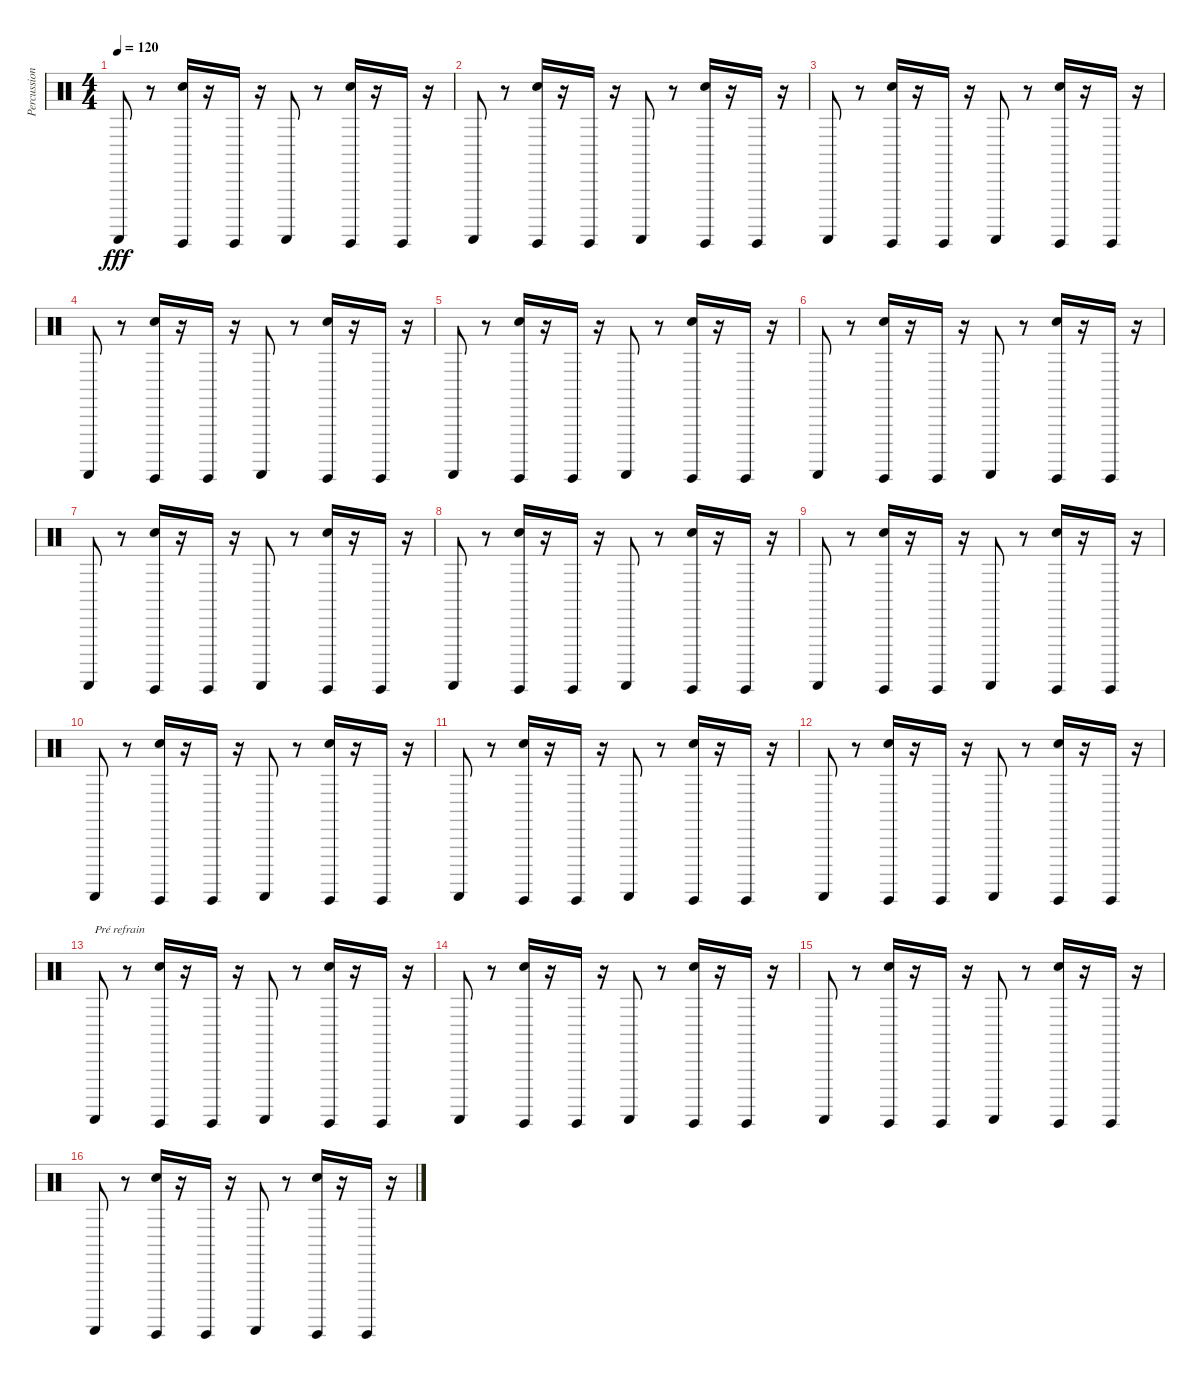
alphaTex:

\track ("Percussions" "Percussion") {instrument percussion}
\staff {score}
\articulation defaults
\ts (4 4)
\tempo 120
\clef neutral
\ks c "Guiro (scrap-return)".8{dy fff}
r.8 ("Guiro (hit)" "Hand Clap (hit)").16 r.16 "Guiro (hit)".16 r.16 "Guiro (scrap-return)".8 r.8 ("Guiro (hit)" "Hand Clap (hit)").16 r.16 "Guiro (hit)".16 r.16 |
"Guiro (scrap-return)".8 r.8 ("Guiro (hit)" "Hand Clap (hit)").16 r.16 "Guiro (hit)".16 r.16 "Guiro (scrap-return)".8 r.8 ("Guiro (hit)" "Hand Clap (hit)").16 r.16 "Guiro (hit)".16 r.16 |
"Guiro (scrap-return)".8 r.8 ("Guiro (hit)" "Hand Clap (hit)").16 r.16 "Guiro (hit)".16 r.16 "Guiro (scrap-return)".8 r.8 ("Guiro (hit)" "Hand Clap (hit)").16 r.16 "Guiro (hit)".16 r.16 |
"Guiro (scrap-return)".8 r.8 ("Guiro (hit)" "Hand Clap (hit)").16 r.16 "Guiro (hit)".16 r.16 "Guiro (scrap-return)".8 r.8 ("Guiro (hit)" "Hand Clap (hit)").16 r.16 "Guiro (hit)".16 r.16 |
"Guiro (scrap-return)".8 r.8 ("Guiro (hit)" "Hand Clap (hit)").16 r.16 "Guiro (hit)".16 r.16 "Guiro (scrap-return)".8 r.8 ("Guiro (hit)" "Hand Clap (hit)").16 r.16 "Guiro (hit)".16 r.16 |
"Guiro (scrap-return)".8 r.8 ("Guiro (hit)" "Hand Clap (hit)").16 r.16 "Guiro (hit)".16 r.16 "Guiro (scrap-return)".8 r.8 ("Guiro (hit)" "Hand Clap (hit)").16 r.16 "Guiro (hit)".16 r.16 |
"Guiro (scrap-return)".8 r.8 ("Guiro (hit)" "Hand Clap (hit)").16 r.16 "Guiro (hit)".16 r.16 "Guiro (scrap-return)".8 r.8 ("Guiro (hit)" "Hand Clap (hit)").16 r.16 "Guiro (hit)".16 r.16 |
"Guiro (scrap-return)".8 r.8 ("Guiro (hit)" "Hand Clap (hit)").16 r.16 "Guiro (hit)".16 r.16 "Guiro (scrap-return)".8 r.8 ("Guiro (hit)" "Hand Clap (hit)").16 r.16 "Guiro (hit)".16 r.16 |
"Guiro (scrap-return)".8 r.8 ("Guiro (hit)" "Hand Clap (hit)").16 r.16 "Guiro (hit)".16 r.16 "Guiro (scrap-return)".8 r.8 ("Guiro (hit)" "Hand Clap (hit)").16 r.16 "Guiro (hit)".16 r.16 |
"Guiro (scrap-return)".8 r.8 ("Guiro (hit)" "Hand Clap (hit)").16 r.16 "Guiro (hit)".16 r.16 "Guiro (scrap-return)".8 r.8 ("Guiro (hit)" "Hand Clap (hit)").16 r.16 "Guiro (hit)".16 r.16 |
"Guiro (scrap-return)".8 r.8 ("Guiro (hit)" "Hand Clap (hit)").16 r.16 "Guiro (hit)".16 r.16 "Guiro (scrap-return)".8 r.8 ("Guiro (hit)" "Hand Clap (hit)").16 r.16 "Guiro (hit)".16 r.16 |
"Guiro (scrap-return)".8 r.8 ("Guiro (hit)" "Hand Clap (hit)").16 r.16 "Guiro (hit)".16 r.16 "Guiro (scrap-return)".8 r.8 ("Guiro (hit)" "Hand Clap (hit)").16 r.16 "Guiro (hit)".16 r.16 |
"Guiro (scrap-return)".8{txt "Pré refrain"} r.8 ("Guiro (hit)" "Hand Clap (hit)").16 r.16 "Guiro (hit)".16 r.16 "Guiro (scrap-return)".8 r.8 ("Guiro (hit)" "Hand Clap (hit)").16 r.16 "Guiro (hit)".16 r.16 |
"Guiro (scrap-return)".8 r.8 ("Guiro (hit)" "Hand Clap (hit)").16 r.16 "Guiro (hit)".16 r.16 "Guiro (scrap-return)".8 r.8 ("Guiro (hit)" "Hand Clap (hit)").16 r.16 "Guiro (hit)".16 r.16 |
"Guiro (scrap-return)".8 r.8 ("Guiro (hit)" "Hand Clap (hit)").16 r.16 "Guiro (hit)".16 r.16 "Guiro (scrap-return)".8 r.8 ("Guiro (hit)" "Hand Clap (hit)").16 r.16 "Guiro (hit)".16 r.16 |
"Guiro (scrap-return)".8 r.8 ("Guiro (hit)" "Hand Clap (hit)").16 r.16 "Guiro (hit)".16 r.16 "Guiro (scrap-return)".8 r.8 ("Guiro (hit)" "Hand Clap (hit)").16 r.16 "Guiro (hit)".16 r.16
